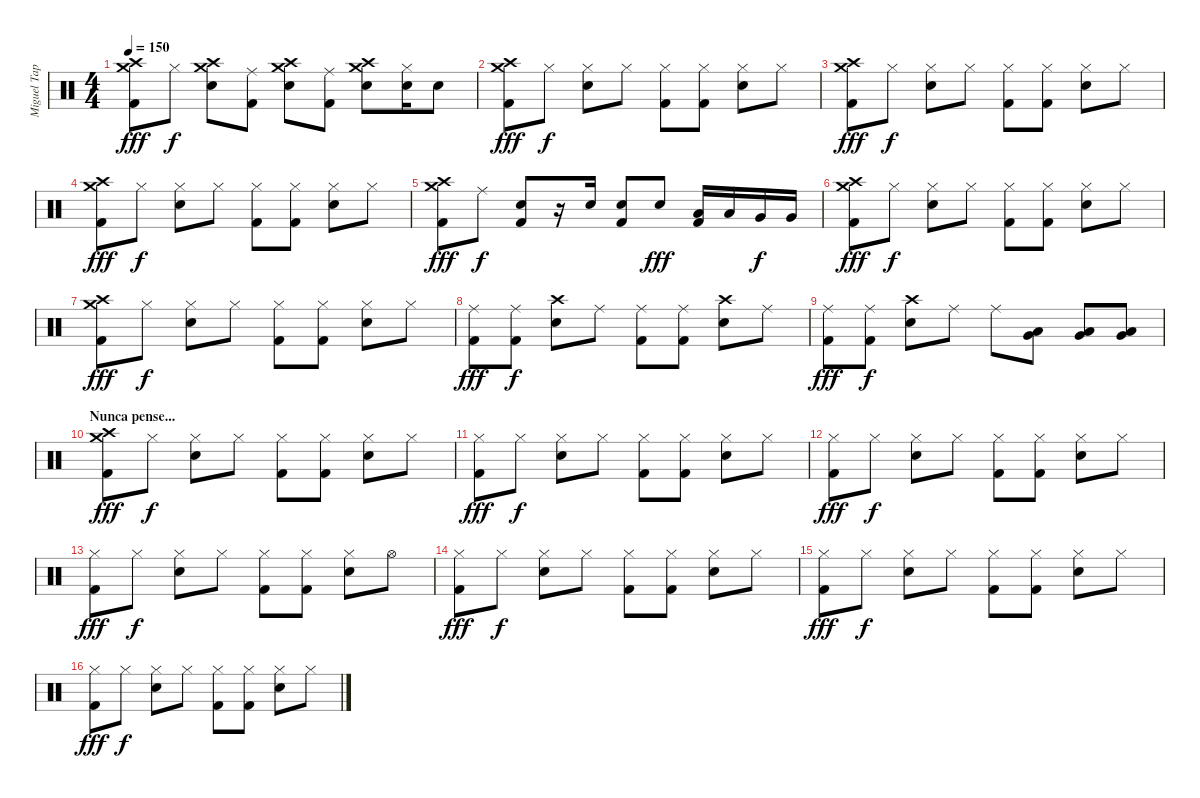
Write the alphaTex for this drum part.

\track ("Miguel Tapia" "Miguel Tap") {instrument percussion}
\staff {score}
\articulation defaults
\ts (4 4)
\tempo 150
\clef neutral
\ks c
("Crash high (hit)" "Crash medium (hit)" "Kick (hit) 2").8{dy fff} "Hi-Hat (closed)".8{dy f} ("Crash high (hit)" "Snare (hit) 2" "Crash medium (hit)").8 ("Ride (middle)" "Kick (hit) 2").8 ("Crash high (hit)" "Snare (hit) 2" "Crash medium (hit)").8 ("Ride (middle)" "Kick (hit) 2").8 ("Crash high (hit)" "Snare (hit) 2" "Crash medium (hit)").8 ("Hi-Hat (closed)" "Snare (hit) 2").16 "Snare (hit) 2".8 |
("Crash high (hit)" "Crash medium (hit)" "Kick (hit) 2").8{dy fff} "Hi-Hat (closed)".8{dy f} ("Hi-Hat (closed)" "Snare (hit) 2").8 "Hi-Hat (closed)".8 ("Hi-Hat (closed)" "Kick (hit) 2").8 ("Hi-Hat (closed)" "Kick (hit) 2").8 ("Hi-Hat (closed)" "Snare (hit) 2").8 "Hi-Hat (closed)".8 |
("Crash high (hit)" "Crash medium (hit)" "Kick (hit) 2").8{dy fff} "Hi-Hat (closed)".8{dy f} ("Hi-Hat (closed)" "Snare (hit) 2").8 "Hi-Hat (closed)".8 ("Hi-Hat (closed)" "Kick (hit) 2").8 ("Hi-Hat (closed)" "Kick (hit) 2").8 ("Hi-Hat (closed)" "Snare (hit) 2").8 "Hi-Hat (closed)".8 |
("Crash high (hit)" "Crash medium (hit)" "Kick (hit) 2").8{dy fff} "Hi-Hat (closed)".8{dy f} ("Hi-Hat (closed)" "Snare (hit) 2").8 "Hi-Hat (closed)".8 ("Hi-Hat (closed)" "Kick (hit) 2").8 ("Hi-Hat (closed)" "Kick (hit) 2").8 ("Hi-Hat (closed)" "Snare (hit) 2").8 "Hi-Hat (closed)".8 |
("Crash high (hit)" "Crash medium (hit)" "Kick (hit) 2").8{dy fff} "Ride (middle)".8{dy f} ("Snare (hit) 2" "Kick (hit) 2").8 r.16 "Snare (hit) 2".16 ("Snare (hit) 2" "Kick (hit) 2").8 "Snare (hit) 2".8{dy fff} ("Low Tom (hit)" "Kick (hit) 2").16 "Low Tom (hit)".16 "Very Low Tom (hit)".16{dy f} "Very Low Tom (hit)".16 |
("Crash high (hit)" "Crash medium (hit)" "Kick (hit) 2").8{dy fff} "Hi-Hat (closed)".8{dy f} ("Hi-Hat (closed)" "Snare (hit) 2").8 "Hi-Hat (closed)".8 ("Hi-Hat (closed)" "Kick (hit) 2").8 ("Hi-Hat (closed)" "Kick (hit) 2").8 ("Hi-Hat (closed)" "Snare (hit) 2").8 "Hi-Hat (closed)".8 |
("Crash high (hit)" "Crash medium (hit)" "Kick (hit) 2").8{dy fff} "Hi-Hat (closed)".8{dy f} ("Hi-Hat (closed)" "Snare (hit) 2").8 "Hi-Hat (closed)".8 ("Hi-Hat (closed)" "Kick (hit) 2").8 ("Hi-Hat (closed)" "Kick (hit) 2").8 ("Hi-Hat (closed)" "Snare (hit) 2").8 "Hi-Hat (closed)".8 |
("Ride (middle)" "Kick (hit) 2").8{dy fff} ("Ride (middle)" "Kick (hit) 2").8{dy f} ("Crash high (hit)" "Snare (hit) 2").8 "Ride (middle)".8 ("Ride (middle)" "Kick (hit) 2").8 ("Ride (middle)" "Kick (hit) 2").8 ("Crash high (hit)" "Snare (hit) 2").8 "Ride (middle)".8 |
("Ride (middle)" "Kick (hit) 2").8{dy fff} ("Ride (middle)" "Kick (hit) 2").8{dy f} ("Crash high (hit)" "Snare (hit) 2").8 "Ride (middle)".8 "Ride (middle)".8 ("Low Tom (hit)" "Very Low Tom (hit)").8 ("Low Tom (hit)" "Very Low Tom (hit)").8 ("Low Tom (hit)" "Very Low Tom (hit)").8 |
\section ("" "Nunca pense...")
("Crash high (hit)" "Crash medium (hit)" "Kick (hit) 2").8{dy fff} "Hi-Hat (closed)".8{dy f} ("Hi-Hat (closed)" "Snare (hit) 2").8 "Hi-Hat (closed)".8 ("Hi-Hat (closed)" "Kick (hit) 2").8 ("Hi-Hat (closed)" "Kick (hit) 2").8 ("Hi-Hat (closed)" "Snare (hit) 2").8 "Hi-Hat (closed)".8 |
("Hi-Hat (closed)" "Kick (hit) 2").8{dy fff} "Hi-Hat (closed)".8{dy f} ("Hi-Hat (closed)" "Snare (hit) 2").8 "Hi-Hat (closed)".8 ("Hi-Hat (closed)" "Kick (hit) 2").8 ("Hi-Hat (closed)" "Kick (hit) 2").8 ("Hi-Hat (closed)" "Snare (hit) 2").8 "Hi-Hat (closed)".8 |
("Hi-Hat (closed)" "Kick (hit) 2").8{dy fff} "Hi-Hat (closed)".8{dy f} ("Hi-Hat (closed)" "Snare (hit) 2").8 "Hi-Hat (closed)".8 ("Hi-Hat (closed)" "Kick (hit) 2").8 ("Hi-Hat (closed)" "Kick (hit) 2").8 ("Hi-Hat (closed)" "Snare (hit) 2").8 "Hi-Hat (closed)".8 |
("Hi-Hat (closed)" "Kick (hit) 2").8{dy fff} "Hi-Hat (closed)".8{dy f} ("Hi-Hat (closed)" "Snare (hit) 2").8 "Hi-Hat (closed)".8 ("Hi-Hat (closed)" "Kick (hit) 2").8 ("Hi-Hat (closed)" "Kick (hit) 2").8 ("Hi-Hat (closed)" "Snare (hit) 2").8 "Hi-Hat (open)".8 |
("Hi-Hat (closed)" "Kick (hit) 2").8{dy fff} "Hi-Hat (closed)".8{dy f} ("Hi-Hat (closed)" "Snare (hit) 2").8 "Hi-Hat (closed)".8 ("Hi-Hat (closed)" "Kick (hit) 2").8 ("Hi-Hat (closed)" "Kick (hit) 2").8 ("Hi-Hat (closed)" "Snare (hit) 2").8 "Hi-Hat (closed)".8 |
("Hi-Hat (closed)" "Kick (hit) 2").8{dy fff} "Hi-Hat (closed)".8{dy f} ("Hi-Hat (closed)" "Snare (hit) 2").8 "Hi-Hat (closed)".8 ("Hi-Hat (closed)" "Kick (hit) 2").8 ("Hi-Hat (closed)" "Kick (hit) 2").8 ("Hi-Hat (closed)" "Snare (hit) 2").8 "Hi-Hat (closed)".8 |
("Hi-Hat (closed)" "Kick (hit) 2").8{dy fff} "Hi-Hat (closed)".8{dy f} ("Hi-Hat (closed)" "Snare (hit) 2").8 "Hi-Hat (closed)".8 ("Hi-Hat (closed)" "Kick (hit) 2").8 ("Hi-Hat (closed)" "Kick (hit) 2").8 ("Hi-Hat (closed)" "Snare (hit) 2").8 "Hi-Hat (closed)".8
